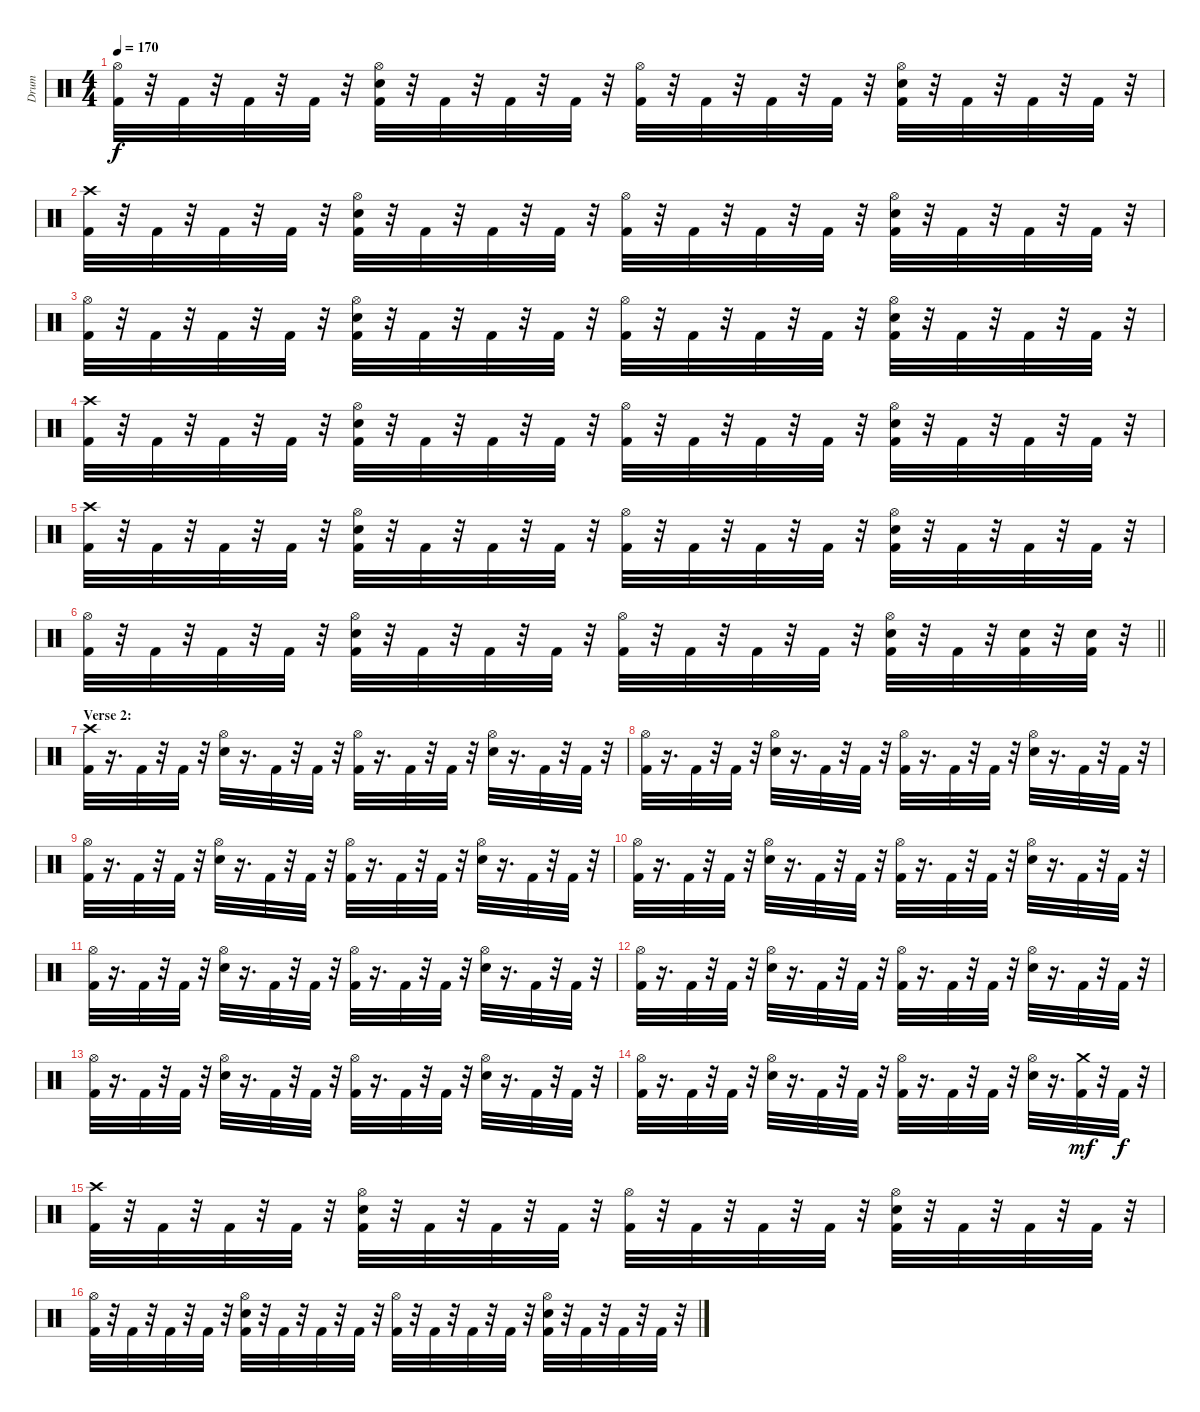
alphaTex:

\track ("Drum" "Drum") {instrument percussion}
\staff {score}
\articulation defaults
\ts (4 4)
\tempo 170
\clef neutral
\ks c
("Hi-Hat (open)" "Kick (hit) 2").32{dy f} r.32 "Kick (hit) 2".32 r.32 "Kick (hit) 2".32 r.32 "Kick (hit) 2".32 r.32 ("Hi-Hat (open)" "Snare (hit) 2" "Kick (hit) 2").32 r.32 "Kick (hit) 2".32 r.32 "Kick (hit) 2".32 r.32 "Kick (hit) 2".32 r.32 ("Hi-Hat (open)" "Kick (hit) 2").32 r.32 "Kick (hit) 2".32 r.32 "Kick (hit) 2".32 r.32 "Kick (hit) 2".32 r.32 ("Hi-Hat (open)" "Snare (hit) 2" "Kick (hit) 2").32 r.32 "Kick (hit) 2".32 r.32 "Kick (hit) 2".32 r.32 "Kick (hit) 2".32 r.32 |
("Crash high (hit)" "Kick (hit) 2").32 r.32 "Kick (hit) 2".32 r.32 "Kick (hit) 2".32 r.32 "Kick (hit) 2".32 r.32 ("Snare (hit) 2" "Hi-Hat (open)" "Kick (hit) 2").32 r.32 "Kick (hit) 2".32 r.32 "Kick (hit) 2".32 r.32 "Kick (hit) 2".32 r.32 ("Hi-Hat (open)" "Kick (hit) 2").32 r.32 "Kick (hit) 2".32 r.32 "Kick (hit) 2".32 r.32 "Kick (hit) 2".32 r.32 ("Snare (hit) 2" "Hi-Hat (open)" "Kick (hit) 2").32 r.32 "Kick (hit) 2".32 r.32 "Kick (hit) 2".32 r.32 "Kick (hit) 2".32 r.32 |
("Hi-Hat (open)" "Kick (hit) 2").32 r.32 "Kick (hit) 2".32 r.32 "Kick (hit) 2".32 r.32 "Kick (hit) 2".32 r.32 ("Snare (hit) 2" "Hi-Hat (open)" "Kick (hit) 2").32 r.32 "Kick (hit) 2".32 r.32 "Kick (hit) 2".32 r.32 "Kick (hit) 2".32 r.32 ("Hi-Hat (open)" "Kick (hit) 2").32 r.32 "Kick (hit) 2".32 r.32 "Kick (hit) 2".32 r.32 "Kick (hit) 2".32 r.32 ("Snare (hit) 2" "Hi-Hat (open)" "Kick (hit) 2").32 r.32 "Kick (hit) 2".32 r.32 "Kick (hit) 2".32 r.32 "Kick (hit) 2".32 r.32 |
("Crash high (hit)" "Kick (hit) 2").32 r.32 "Kick (hit) 2".32 r.32 "Kick (hit) 2".32 r.32 "Kick (hit) 2".32 r.32 ("Hi-Hat (open)" "Snare (hit) 2" "Kick (hit) 2").32 r.32 "Kick (hit) 2".32 r.32 "Kick (hit) 2".32 r.32 "Kick (hit) 2".32 r.32 ("Hi-Hat (open)" "Kick (hit) 2").32 r.32 "Kick (hit) 2".32 r.32 "Kick (hit) 2".32 r.32 "Kick (hit) 2".32 r.32 ("Hi-Hat (open)" "Snare (hit) 2" "Kick (hit) 2").32 r.32 "Kick (hit) 2".32 r.32 "Kick (hit) 2".32 r.32 "Kick (hit) 2".32 r.32 |
("Crash high (hit)" "Kick (hit) 2").32 r.32 "Kick (hit) 2".32 r.32 "Kick (hit) 2".32 r.32 "Kick (hit) 2".32 r.32 ("Hi-Hat (open)" "Snare (hit) 2" "Kick (hit) 2").32 r.32 "Kick (hit) 2".32 r.32 "Kick (hit) 2".32 r.32 "Kick (hit) 2".32 r.32 ("Hi-Hat (open)" "Kick (hit) 2").32 r.32 "Kick (hit) 2".32 r.32 "Kick (hit) 2".32 r.32 "Kick (hit) 2".32 r.32 ("Hi-Hat (open)" "Snare (hit) 2" "Kick (hit) 2").32 r.32 "Kick (hit) 2".32 r.32 "Kick (hit) 2".32 r.32 "Kick (hit) 2".32 r.32 |
\barLineRight lightlight
("Hi-Hat (open)" "Kick (hit) 2").32 r.32 "Kick (hit) 2".32 r.32 "Kick (hit) 2".32 r.32 "Kick (hit) 2".32 r.32 ("Snare (hit) 2" "Hi-Hat (open)" "Kick (hit) 2").32 r.32 "Kick (hit) 2".32 r.32 "Kick (hit) 2".32 r.32 "Kick (hit) 2".32 r.32 ("Hi-Hat (open)" "Kick (hit) 2").32 r.32 "Kick (hit) 2".32 r.32 "Kick (hit) 2".32 r.32 "Kick (hit) 2".32 r.32 ("Snare (hit) 2" "Hi-Hat (open)" "Kick (hit) 2").32 r.32 "Kick (hit) 2".32 r.32 ("Snare (hit) 2" "Kick (hit) 2").32 r.32 ("Snare (hit) 2" "Kick (hit) 2").32 r.32 |
\section ("" "Verse 2:")
("Crash high (hit)" "Kick (hit) 2").32 r.16{d} "Kick (hit) 2".32 r.32 "Kick (hit) 2".32 r.32 ("Snare (hit) 2" "Hi-Hat (open)").32 r.16{d} "Kick (hit) 2".32 r.32 "Kick (hit) 2".32 r.32 ("Kick (hit) 2" "Hi-Hat (open)").32 r.16{d} "Kick (hit) 2".32 r.32 "Kick (hit) 2".32 r.32 ("Snare (hit) 2" "Hi-Hat (open)").32 r.16{d} "Kick (hit) 2".32 r.32 "Kick (hit) 2".32 r.32 |
("Kick (hit) 2" "Hi-Hat (open)").32 r.16{d} "Kick (hit) 2".32 r.32 "Kick (hit) 2".32 r.32 ("Snare (hit) 2" "Hi-Hat (open)").32 r.16{d} "Kick (hit) 2".32 r.32 "Kick (hit) 2".32 r.32 ("Kick (hit) 2" "Hi-Hat (open)").32 r.16{d} "Kick (hit) 2".32 r.32 "Kick (hit) 2".32 r.32 ("Snare (hit) 2" "Hi-Hat (open)").32 r.16{d} "Kick (hit) 2".32 r.32 "Kick (hit) 2".32 r.32 |
("Hi-Hat (open)" "Kick (hit) 2").32 r.16{d} "Kick (hit) 2".32 r.32 "Kick (hit) 2".32 r.32 ("Hi-Hat (open)" "Snare (hit) 2").32 r.16{d} "Kick (hit) 2".32 r.32 "Kick (hit) 2".32 r.32 ("Hi-Hat (open)" "Kick (hit) 2").32 r.16{d} "Kick (hit) 2".32 r.32 "Kick (hit) 2".32 r.32 ("Hi-Hat (open)" "Snare (hit) 2").32 r.16{d} "Kick (hit) 2".32 r.32 "Kick (hit) 2".32 r.32 |
("Hi-Hat (open)" "Kick (hit) 2").32 r.16{d} "Kick (hit) 2".32 r.32 "Kick (hit) 2".32 r.32 ("Hi-Hat (open)" "Snare (hit) 2").32 r.16{d} "Kick (hit) 2".32 r.32 "Kick (hit) 2".32 r.32 ("Hi-Hat (open)" "Kick (hit) 2").32 r.16{d} "Kick (hit) 2".32 r.32 "Kick (hit) 2".32 r.32 ("Hi-Hat (open)" "Snare (hit) 2").32 r.16{d} "Kick (hit) 2".32 r.32 "Kick (hit) 2".32 r.32 |
("Kick (hit) 2" "Hi-Hat (open)").32 r.16{d} "Kick (hit) 2".32 r.32 "Kick (hit) 2".32 r.32 ("Hi-Hat (open)" "Snare (hit) 2").32 r.16{d} "Kick (hit) 2".32 r.32 "Kick (hit) 2".32 r.32 ("Hi-Hat (open)" "Kick (hit) 2").32 r.16{d} "Kick (hit) 2".32 r.32 "Kick (hit) 2".32 r.32 ("Hi-Hat (open)" "Snare (hit) 2").32 r.16{d} "Kick (hit) 2".32 r.32 "Kick (hit) 2".32 r.32 |
("Hi-Hat (open)" "Kick (hit) 2").32 r.16{d} "Kick (hit) 2".32 r.32 "Kick (hit) 2".32 r.32 ("Hi-Hat (open)" "Snare (hit) 2").32 r.16{d} "Kick (hit) 2".32 r.32 "Kick (hit) 2".32 r.32 ("Hi-Hat (open)" "Kick (hit) 2").32 r.16{d} "Kick (hit) 2".32 r.32 "Kick (hit) 2".32 r.32 ("Hi-Hat (open)" "Snare (hit) 2").32 r.16{d} "Kick (hit) 2".32 r.32 "Kick (hit) 2".32 r.32 |
("Kick (hit) 2" "Hi-Hat (open)").32 r.16{d} "Kick (hit) 2".32 r.32 "Kick (hit) 2".32 r.32 ("Hi-Hat (open)" "Snare (hit) 2").32 r.16{d} "Kick (hit) 2".32 r.32 "Kick (hit) 2".32 r.32 ("Hi-Hat (open)" "Kick (hit) 2").32 r.16{d} "Kick (hit) 2".32 r.32 "Kick (hit) 2".32 r.32 ("Hi-Hat (open)" "Snare (hit) 2").32 r.16{d} "Kick (hit) 2".32 r.32 "Kick (hit) 2".32 r.32 |
("Hi-Hat (open)" "Kick (hit) 2").32 r.16{d} "Kick (hit) 2".32 r.32 "Kick (hit) 2".32 r.32 ("Hi-Hat (open)" "Snare (hit) 2").32 r.16{d} "Kick (hit) 2".32 r.32 "Kick (hit) 2".32 r.32 ("Hi-Hat (open)" "Kick (hit) 2").32 r.16{d} "Kick (hit) 2".32 r.32 "Kick (hit) 2".32 r.32 ("Hi-Hat (open)" "Snare (hit) 2").32 r.16{d} ("Crash medium (hit)" "Kick (hit) 2").32{dy mf} r.32 "Kick (hit) 2".32{dy f} r.32 |
("Kick (hit) 2" "Crash high (hit)").32 r.32 "Kick (hit) 2".32 r.32 "Kick (hit) 2".32 r.32 "Kick (hit) 2".32 r.32 ("Kick (hit) 2" "Hi-Hat (open)" "Snare (hit) 2").32 r.32 "Kick (hit) 2".32 r.32 "Kick (hit) 2".32 r.32 "Kick (hit) 2".32 r.32 ("Kick (hit) 2" "Hi-Hat (open)").32 r.32 "Kick (hit) 2".32 r.32 "Kick (hit) 2".32 r.32 "Kick (hit) 2".32 r.32 ("Kick (hit) 2" "Hi-Hat (open)" "Snare (hit) 2").32 r.32 "Kick (hit) 2".32 r.32 "Kick (hit) 2".32 r.32 "Kick (hit) 2".32 r.32 |
("Kick (hit) 2" "Hi-Hat (open)").32 r.32 "Kick (hit) 2".32 r.32 "Kick (hit) 2".32 r.32 "Kick (hit) 2".32 r.32 ("Kick (hit) 2" "Hi-Hat (open)" "Snare (hit) 2").32 r.32 "Kick (hit) 2".32 r.32 "Kick (hit) 2".32 r.32 "Kick (hit) 2".32 r.32 ("Kick (hit) 2" "Hi-Hat (open)").32 r.32 "Kick (hit) 2".32 r.32 "Kick (hit) 2".32 r.32 "Kick (hit) 2".32 r.32 ("Kick (hit) 2" "Snare (hit) 2" "Hi-Hat (open)").32 r.32 "Kick (hit) 2".32 r.32 "Kick (hit) 2".32 r.32 "Kick (hit) 2".32 r.32
